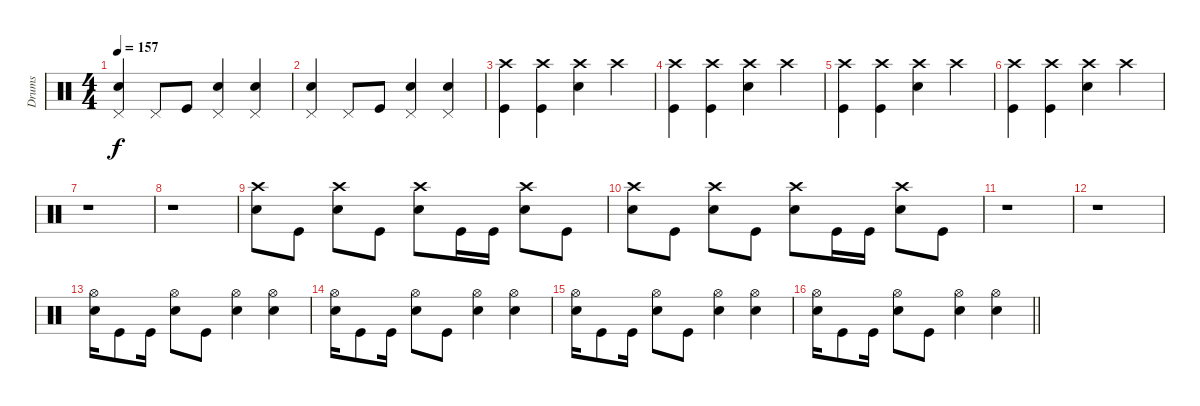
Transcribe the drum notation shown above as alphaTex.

\track ("Drums" "Drums") {instrument percussion}
\staff {score}
\articulation defaults
\ts (4 4)
\tempo 157
\clef neutral
\ks c
("Pedal Hi-Hat (hit)" "Snare (hit) 2").4{dy f} "Pedal Hi-Hat (hit)".8 "Kick (hit)".8 ("Pedal Hi-Hat (hit)" "Snare (hit) 2").4 ("Pedal Hi-Hat (hit)" "Snare (hit) 2").4 |
("Pedal Hi-Hat (hit)" "Snare (hit) 2").4 "Pedal Hi-Hat (hit)".8 "Kick (hit)".8 ("Pedal Hi-Hat (hit)" "Snare (hit) 2").4 ("Pedal Hi-Hat (hit)" "Snare (hit) 2").4 |
("Crash high (hit)" "Kick (hit)").4 ("Crash high (hit)" "Kick (hit)").4 ("Crash high (hit)" "Snare (hit) 2").4 "Crash high (hit)".4 |
("Crash high (hit)" "Kick (hit)").4 ("Crash high (hit)" "Kick (hit)").4 ("Crash high (hit)" "Snare (hit) 2").4 "Crash high (hit)".4 |
("Crash high (hit)" "Kick (hit)").4 ("Crash high (hit)" "Kick (hit)").4 ("Crash high (hit)" "Snare (hit) 2").4 "Crash high (hit)".4 |
("Crash high (hit)" "Kick (hit)").4 ("Crash high (hit)" "Kick (hit)").4 ("Crash high (hit)" "Snare (hit) 2").4 "Crash high (hit)".4 |
r.1 |
r.1 |
("Crash high (hit)" "Snare (hit) 2").8 "Kick (hit)".8 ("Crash high (hit)" "Snare (hit) 2").8 "Kick (hit)".8 ("Crash high (hit)" "Snare (hit) 2").8 "Kick (hit)".16 "Kick (hit)".16 ("Crash high (hit)" "Snare (hit) 2").8 "Kick (hit)".8 |
("Crash high (hit)" "Snare (hit) 2").8 "Kick (hit)".8 ("Crash high (hit)" "Snare (hit) 2").8 "Kick (hit)".8 ("Crash high (hit)" "Snare (hit) 2").8 "Kick (hit)".16 "Kick (hit)".16 ("Crash high (hit)" "Snare (hit) 2").8 "Kick (hit)".8 |
r.1 |
r.1 |
("Hi-Hat (open)" "Snare (hit) 2").16 "Kick (hit)".8 "Kick (hit)".16 ("Hi-Hat (open)" "Snare (hit) 2").8 "Kick (hit)".8 ("Hi-Hat (open)" "Snare (hit) 2").4 ("Hi-Hat (open)" "Snare (hit) 2").4 |
("Hi-Hat (open)" "Snare (hit) 2").16 "Kick (hit)".8 "Kick (hit)".16 ("Hi-Hat (open)" "Snare (hit) 2").8 "Kick (hit)".8 ("Hi-Hat (open)" "Snare (hit) 2").4 ("Hi-Hat (open)" "Snare (hit) 2").4 |
("Hi-Hat (open)" "Snare (hit) 2").16 "Kick (hit)".8 "Kick (hit)".16 ("Hi-Hat (open)" "Snare (hit) 2").8 "Kick (hit)".8 ("Hi-Hat (open)" "Snare (hit) 2").4 ("Hi-Hat (open)" "Snare (hit) 2").4 |
\barLineRight lightlight
("Hi-Hat (open)" "Snare (hit) 2").16 "Kick (hit)".8 "Kick (hit)".16 ("Hi-Hat (open)" "Snare (hit) 2").8 "Kick (hit)".8 ("Hi-Hat (open)" "Snare (hit) 2").4 ("Hi-Hat (open)" "Snare (hit) 2").4
